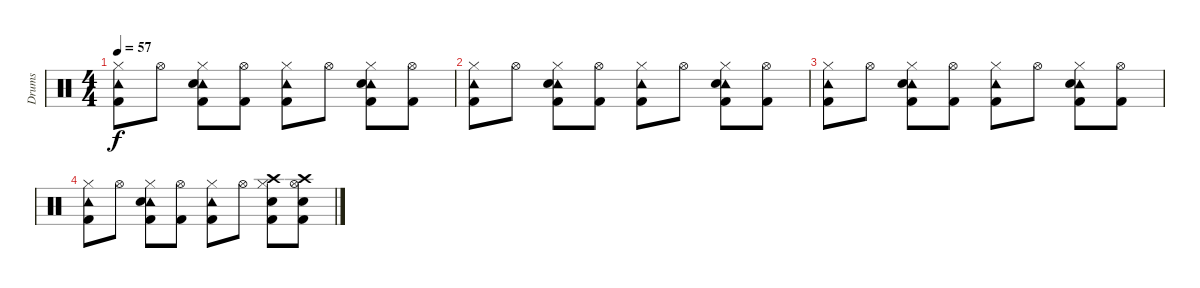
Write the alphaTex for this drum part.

\track ("Drums" "Drums") {instrument percussion}
\staff {score}
\articulation defaults
\ts (4 4)
\tempo 57
\clef neutral
\ks c
("Tambourine (hit)" "Hi-Hat (closed)" "Kick (hit) 2").8{dy f} "Hi-Hat (open)".8 ("Tambourine (hit)" "Electric Snare (hit)" "Hi-Hat (closed)" "Kick (hit) 2").8 ("Hi-Hat (open)" "Kick (hit) 2").8 ("Tambourine (hit)" "Hi-Hat (closed)" "Kick (hit) 2").8 "Hi-Hat (open)".8 ("Tambourine (hit)" "Electric Snare (hit)" "Hi-Hat (closed)" "Kick (hit) 2").8 ("Hi-Hat (open)" "Kick (hit) 2").8 |
("Hi-Hat (closed)" "Tambourine (hit)" "Kick (hit) 2").8 "Hi-Hat (open)".8 ("Tambourine (hit)" "Electric Snare (hit)" "Hi-Hat (closed)" "Kick (hit) 2").8 ("Hi-Hat (open)" "Kick (hit) 2").8 ("Tambourine (hit)" "Hi-Hat (closed)" "Kick (hit) 2").8 "Hi-Hat (open)".8 ("Tambourine (hit)" "Electric Snare (hit)" "Hi-Hat (closed)" "Kick (hit) 2").8 ("Hi-Hat (open)" "Kick (hit) 2").8 |
("Hi-Hat (closed)" "Tambourine (hit)" "Kick (hit) 2").8 "Hi-Hat (open)".8 ("Tambourine (hit)" "Electric Snare (hit)" "Hi-Hat (closed)" "Kick (hit) 2").8 ("Hi-Hat (open)" "Kick (hit) 2").8 ("Tambourine (hit)" "Hi-Hat (closed)" "Kick (hit) 2").8 "Hi-Hat (open)".8 ("Tambourine (hit)" "Electric Snare (hit)" "Hi-Hat (closed)" "Kick (hit) 2").8 ("Hi-Hat (open)" "Kick (hit) 2").8 |
("Tambourine (hit)" "Hi-Hat (closed)" "Kick (hit) 2").8 "Hi-Hat (open)".8 ("Tambourine (hit)" "Electric Snare (hit)" "Hi-Hat (closed)" "Kick (hit) 2").8 ("Hi-Hat (open)" "Kick (hit) 2").8 ("Tambourine (hit)" "Hi-Hat (closed)" "Kick (hit) 2").8 "Hi-Hat (open)".8 ("Crash high (hit)" "Electric Snare (hit)" "Hi-Hat (closed)" "Kick (hit) 2").8 ("Electric Snare (hit)" "Crash high (hit)" "Hi-Hat (open)" "Kick (hit) 2").8
